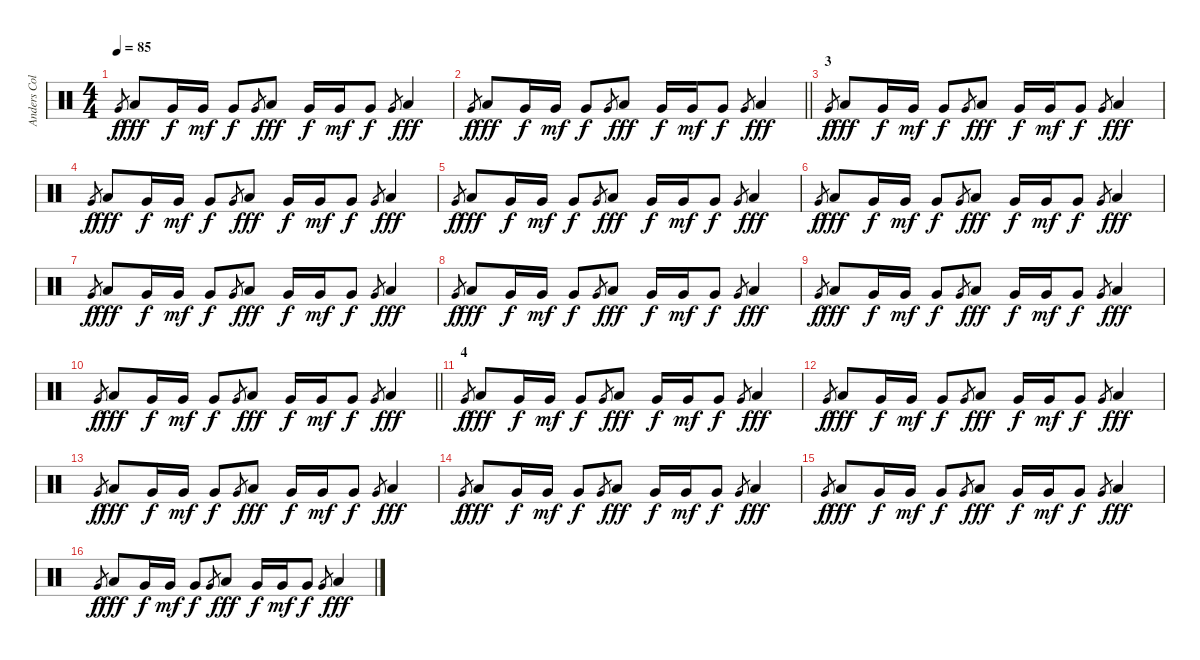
\track ("Anders Colsefni" "Anders Col") {instrument percussion}
\staff {score}
\articulation defaults
\ts (4 4)
\tempo 85
\clef neutral
\ks c "Very Low Tom (hit)".8{gr dy f} "Low Tom (hit)".8{dy fff} "Very Low Tom (hit)".16{dy f} "Very Low Tom (hit)".16{dy mf} "Very Low Tom (hit)".8{dy f} "Very Low Tom (hit)".8{gr} "Low Tom (hit)".8{dy fff} "Very Low Tom (hit)".16{dy f} "Very Low Tom (hit)".16{dy mf} "Very Low Tom (hit)".8{dy f} "Very Low Tom (hit)".8{gr} "Low Tom (hit)".4{dy fff}
|
\barLineRight lightlight "Very Low Tom (hit)".8{gr dy f} "Low Tom (hit)".8{dy fff} "Very Low Tom (hit)".16{dy f} "Very Low Tom (hit)".16{dy mf} "Very Low Tom (hit)".8{dy f} "Very Low Tom (hit)".8{gr} "Low Tom (hit)".8{dy fff} "Very Low Tom (hit)".16{dy f} "Very Low Tom (hit)".16{dy mf} "Very Low Tom (hit)".8{dy f} "Very Low Tom (hit)".8{gr} "Low Tom (hit)".4{dy fff}
|
\section ("" "3")
"Very Low Tom (hit)".8{gr dy f} "Low Tom (hit)".8{dy fff} "Very Low Tom (hit)".16{dy f} "Very Low Tom (hit)".16{dy mf} "Very Low Tom (hit)".8{dy f} "Very Low Tom (hit)".8{gr} "Low Tom (hit)".8{dy fff} "Very Low Tom (hit)".16{dy f} "Very Low Tom (hit)".16{dy mf} "Very Low Tom (hit)".8{dy f} "Very Low Tom (hit)".8{gr} "Low Tom (hit)".4{dy fff} |
"Very Low Tom (hit)".8{gr dy f} "Low Tom (hit)".8{dy fff} "Very Low Tom (hit)".16{dy f} "Very Low Tom (hit)".16{dy mf} "Very Low Tom (hit)".8{dy f} "Very Low Tom (hit)".8{gr} "Low Tom (hit)".8{dy fff} "Very Low Tom (hit)".16{dy f} "Very Low Tom (hit)".16{dy mf} "Very Low Tom (hit)".8{dy f} "Very Low Tom (hit)".8{gr} "Low Tom (hit)".4{dy fff} |
"Very Low Tom (hit)".8{gr dy f} "Low Tom (hit)".8{dy fff} "Very Low Tom (hit)".16{dy f} "Very Low Tom (hit)".16{dy mf} "Very Low Tom (hit)".8{dy f} "Very Low Tom (hit)".8{gr} "Low Tom (hit)".8{dy fff} "Very Low Tom (hit)".16{dy f} "Very Low Tom (hit)".16{dy mf} "Very Low Tom (hit)".8{dy f} "Very Low Tom (hit)".8{gr} "Low Tom (hit)".4{dy fff} |
"Very Low Tom (hit)".8{gr dy f} "Low Tom (hit)".8{dy fff} "Very Low Tom (hit)".16{dy f} "Very Low Tom (hit)".16{dy mf} "Very Low Tom (hit)".8{dy f} "Very Low Tom (hit)".8{gr} "Low Tom (hit)".8{dy fff} "Very Low Tom (hit)".16{dy f} "Very Low Tom (hit)".16{dy mf} "Very Low Tom (hit)".8{dy f} "Very Low Tom (hit)".8{gr} "Low Tom (hit)".4{dy fff} |
"Very Low Tom (hit)".8{gr dy f} "Low Tom (hit)".8{dy fff} "Very Low Tom (hit)".16{dy f} "Very Low Tom (hit)".16{dy mf} "Very Low Tom (hit)".8{dy f} "Very Low Tom (hit)".8{gr} "Low Tom (hit)".8{dy fff} "Very Low Tom (hit)".16{dy f} "Very Low Tom (hit)".16{dy mf} "Very Low Tom (hit)".8{dy f} "Very Low Tom (hit)".8{gr} "Low Tom (hit)".4{dy fff} |
"Very Low Tom (hit)".8{gr dy f} "Low Tom (hit)".8{dy fff} "Very Low Tom (hit)".16{dy f} "Very Low Tom (hit)".16{dy mf} "Very Low Tom (hit)".8{dy f} "Very Low Tom (hit)".8{gr} "Low Tom (hit)".8{dy fff} "Very Low Tom (hit)".16{dy f} "Very Low Tom (hit)".16{dy mf} "Very Low Tom (hit)".8{dy f} "Very Low Tom (hit)".8{gr} "Low Tom (hit)".4{dy fff} |
"Very Low Tom (hit)".8{gr dy f} "Low Tom (hit)".8{dy fff} "Very Low Tom (hit)".16{dy f} "Very Low Tom (hit)".16{dy mf} "Very Low Tom (hit)".8{dy f} "Very Low Tom (hit)".8{gr} "Low Tom (hit)".8{dy fff} "Very Low Tom (hit)".16{dy f} "Very Low Tom (hit)".16{dy mf} "Very Low Tom (hit)".8{dy f} "Very Low Tom (hit)".8{gr} "Low Tom (hit)".4{dy fff} |
\barLineRight lightlight "Very Low Tom (hit)".8{gr dy f} "Low Tom (hit)".8{dy fff} "Very Low Tom (hit)".16{dy f} "Very Low Tom (hit)".16{dy mf} "Very Low Tom (hit)".8{dy f} "Very Low Tom (hit)".8{gr} "Low Tom (hit)".8{dy fff} "Very Low Tom (hit)".16{dy f} "Very Low Tom (hit)".16{dy mf} "Very Low Tom (hit)".8{dy f} "Very Low Tom (hit)".8{gr} "Low Tom (hit)".4{dy fff}
|
\section ("" "4")
"Very Low Tom (hit)".8{gr dy f} "Low Tom (hit)".8{dy fff} "Very Low Tom (hit)".16{dy f} "Very Low Tom (hit)".16{dy mf} "Very Low Tom (hit)".8{dy f} "Very Low Tom (hit)".8{gr} "Low Tom (hit)".8{dy fff} "Very Low Tom (hit)".16{dy f} "Very Low Tom (hit)".16{dy mf} "Very Low Tom (hit)".8{dy f} "Very Low Tom (hit)".8{gr} "Low Tom (hit)".4{dy fff} |
"Very Low Tom (hit)".8{gr dy f} "Low Tom (hit)".8{dy fff} "Very Low Tom (hit)".16{dy f} "Very Low Tom (hit)".16{dy mf} "Very Low Tom (hit)".8{dy f} "Very Low Tom (hit)".8{gr} "Low Tom (hit)".8{dy fff} "Very Low Tom (hit)".16{dy f} "Very Low Tom (hit)".16{dy mf} "Very Low Tom (hit)".8{dy f} "Very Low Tom (hit)".8{gr} "Low Tom (hit)".4{dy fff} |
"Very Low Tom (hit)".8{gr dy f} "Low Tom (hit)".8{dy fff} "Very Low Tom (hit)".16{dy f} "Very Low Tom (hit)".16{dy mf} "Very Low Tom (hit)".8{dy f} "Very Low Tom (hit)".8{gr} "Low Tom (hit)".8{dy fff} "Very Low Tom (hit)".16{dy f} "Very Low Tom (hit)".16{dy mf} "Very Low Tom (hit)".8{dy f} "Very Low Tom (hit)".8{gr} "Low Tom (hit)".4{dy fff} |
"Very Low Tom (hit)".8{gr dy f} "Low Tom (hit)".8{dy fff} "Very Low Tom (hit)".16{dy f} "Very Low Tom (hit)".16{dy mf} "Very Low Tom (hit)".8{dy f} "Very Low Tom (hit)".8{gr} "Low Tom (hit)".8{dy fff} "Very Low Tom (hit)".16{dy f} "Very Low Tom (hit)".16{dy mf} "Very Low Tom (hit)".8{dy f} "Very Low Tom (hit)".8{gr} "Low Tom (hit)".4{dy fff} |
"Very Low Tom (hit)".8{gr dy f} "Low Tom (hit)".8{dy fff} "Very Low Tom (hit)".16{dy f} "Very Low Tom (hit)".16{dy mf} "Very Low Tom (hit)".8{dy f} "Very Low Tom (hit)".8{gr} "Low Tom (hit)".8{dy fff} "Very Low Tom (hit)".16{dy f} "Very Low Tom (hit)".16{dy mf} "Very Low Tom (hit)".8{dy f} "Very Low Tom (hit)".8{gr} "Low Tom (hit)".4{dy fff} |
"Very Low Tom (hit)".8{gr dy f} "Low Tom (hit)".8{dy fff} "Very Low Tom (hit)".16{dy f} "Very Low Tom (hit)".16{dy mf} "Very Low Tom (hit)".8{dy f} "Very Low Tom (hit)".8{gr} "Low Tom (hit)".8{dy fff} "Very Low Tom (hit)".16{dy f} "Very Low Tom (hit)".16{dy mf} "Very Low Tom (hit)".8{dy f} "Very Low Tom (hit)".8{gr} "Low Tom (hit)".4{dy fff}
